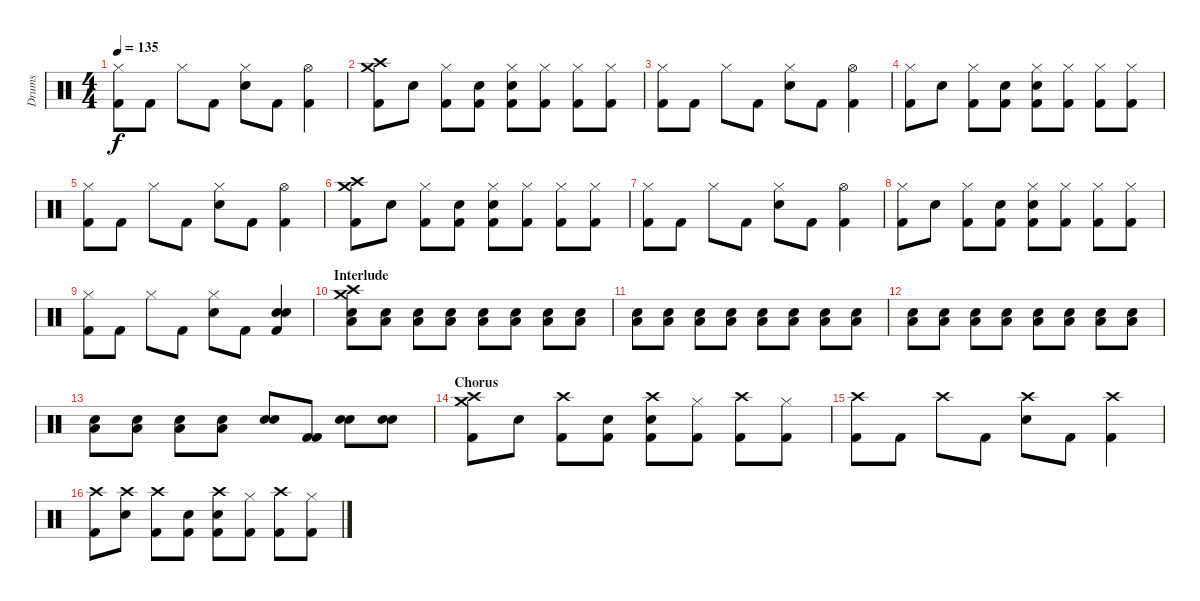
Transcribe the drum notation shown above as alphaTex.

\track ("Drums" "Drums") {instrument percussion}
\staff {score}
\articulation defaults
\ts (4 4)
\tempo 135
\clef neutral
\ks c
("Hi-Hat (closed)" "Kick (hit) 2"{x}).8{dy f} "Kick (hit) 2"{x}.8 "Hi-Hat (closed)".8 "Kick (hit) 2".8 ("Hi-Hat (closed)" "Electric Snare (hit)").8 "Kick (hit) 2".8 ("Hi-Hat (open)" "Kick (hit) 2"{x}).4 |
("Crash medium (hit)" "Crash high (hit)" "Kick (hit) 2").8 "Snare (hit)"{x}.8 ("Hi-Hat (closed)" "Kick (hit) 2"{x}).8 ("Electric Snare (hit)"{x} "Kick (hit) 2").8 ("Hi-Hat (closed)" "Electric Snare (hit)" "Kick (hit) 2"{x}).8 ("Hi-Hat (closed)"{x} "Kick (hit) 2"{x}).8 ("Hi-Hat (closed)" "Kick (hit) 2").8 ("Hi-Hat (closed)"{x} "Kick (hit) 2").8 |
("Hi-Hat (closed)" "Kick (hit) 2"{x}).8 "Kick (hit) 2"{x}.8 "Hi-Hat (closed)".8 "Kick (hit) 2".8 ("Hi-Hat (closed)" "Electric Snare (hit)").8 "Kick (hit) 2".8 ("Hi-Hat (open)" "Kick (hit) 2"{x}).4 |
("Hi-Hat (closed)" "Kick (hit) 2").8 "Snare (hit)"{x}.8 ("Hi-Hat (closed)" "Kick (hit) 2"{x}).8 ("Electric Snare (hit)"{x} "Kick (hit) 2").8 ("Hi-Hat (closed)" "Electric Snare (hit)" "Kick (hit) 2"{x}).8 ("Hi-Hat (closed)"{x} "Kick (hit) 2"{x}).8 ("Hi-Hat (closed)" "Kick (hit) 2").8 ("Hi-Hat (closed)"{x} "Kick (hit) 2").8 |
("Hi-Hat (closed)" "Kick (hit) 2"{x}).8 "Kick (hit) 2"{x}.8 "Hi-Hat (closed)".8 "Kick (hit) 2".8 ("Hi-Hat (closed)" "Electric Snare (hit)").8 "Kick (hit) 2".8 ("Hi-Hat (open)" "Kick (hit) 2"{x}).4 |
("Crash medium (hit)" "Crash high (hit)" "Kick (hit) 2").8 "Snare (hit)"{x}.8 ("Hi-Hat (closed)" "Kick (hit) 2"{x}).8 ("Electric Snare (hit)"{x} "Kick (hit) 2").8 ("Hi-Hat (closed)" "Electric Snare (hit)" "Kick (hit) 2"{x}).8 ("Hi-Hat (closed)"{x} "Kick (hit) 2"{x}).8 ("Hi-Hat (closed)" "Kick (hit) 2").8 ("Hi-Hat (closed)"{x} "Kick (hit) 2").8 |
("Hi-Hat (closed)" "Kick (hit) 2"{x}).8 "Kick (hit) 2"{x}.8 "Hi-Hat (closed)".8 "Kick (hit) 2".8 ("Hi-Hat (closed)" "Electric Snare (hit)").8 "Kick (hit) 2".8 ("Hi-Hat (open)" "Kick (hit) 2"{x}).4 |
("Hi-Hat (closed)" "Kick (hit) 2").8 "Snare (hit)"{x}.8 ("Hi-Hat (closed)" "Kick (hit) 2"{x}).8 ("Electric Snare (hit)"{x} "Kick (hit) 2").8 ("Hi-Hat (closed)" "Electric Snare (hit)" "Kick (hit) 2"{x}).8 ("Hi-Hat (closed)"{x} "Kick (hit) 2"{x}).8 ("Hi-Hat (closed)" "Kick (hit) 2").8 ("Hi-Hat (closed)"{x} "Kick (hit) 2").8 |
("Hi-Hat (closed)" "Kick (hit) 2"{x}).8 "Kick (hit) 2"{x}.8 "Hi-Hat (closed)".8 "Kick (hit) 2".8 ("Hi-Hat (closed)" "Electric Snare (hit)").8 "Kick (hit) 2".8 ("Electric Snare (hit)" "Snare (hit) 2" "Kick (hit) 2"{x}).4 |
\section ("" "Interlude")
("Crash high (hit)" "Crash medium (hit)" "Low Tom (hit)" "Electric Snare (hit)").8{volume 6} ("Low Tom (hit)" "Electric Snare (hit)").8{volume 13} ("Low Tom (hit)" "Electric Snare (hit)").8 ("Low Tom (hit)" "Electric Snare (hit)").8 ("Low Tom (hit)" "Electric Snare (hit)").8 ("Low Tom (hit)" "Electric Snare (hit)").8 ("Low Tom (hit)" "Electric Snare (hit)").8 ("Low Tom (hit)" "Electric Snare (hit)").8 |
("Low Tom (hit)" "Electric Snare (hit)").8 ("Low Tom (hit)" "Electric Snare (hit)").8 ("Low Tom (hit)" "Electric Snare (hit)").8 ("Low Tom (hit)" "Electric Snare (hit)").8 ("Low Tom (hit)" "Electric Snare (hit)").8 ("Low Tom (hit)" "Electric Snare (hit)").8 ("Low Tom (hit)" "Electric Snare (hit)").8 ("Low Tom (hit)" "Electric Snare (hit)").8 |
("Low Tom (hit)" "Electric Snare (hit)").8 ("Low Tom (hit)" "Electric Snare (hit)").8 ("Low Tom (hit)" "Electric Snare (hit)").8 ("Low Tom (hit)" "Electric Snare (hit)").8 ("Low Tom (hit)" "Electric Snare (hit)").8 ("Low Tom (hit)" "Electric Snare (hit)").8 ("Low Tom (hit)" "Electric Snare (hit)").8 ("Low Tom (hit)" "Electric Snare (hit)").8 |
("Low Tom (hit)" "Electric Snare (hit)").8 ("Low Tom (hit)" "Electric Snare (hit)").8 ("Low Tom (hit)" "Electric Snare (hit)").8 ("Low Tom (hit)" "Electric Snare (hit)").8 ("Snare (hit) 2" "Electric Snare (hit)").8 ("Kick (hit) 2" "Kick (hit) 2").8 ("Snare (hit) 2" "Electric Snare (hit)").8 ("Snare (hit) 2"{x} "Electric Snare (hit)"{x}).8 |
\section ("" "Chorus")
("Crash high (hit)" "Crash medium (hit)" "Kick (hit) 2").8 "Snare (hit)"{x}.8 ("Crash high (hit)" "Kick (hit) 2"{x}).8 ("Electric Snare (hit)"{x} "Kick (hit) 2").8 ("Crash high (hit)" "Electric Snare (hit)" "Kick (hit) 2"{x}).8 ("Hi-Hat (closed)"{x} "Kick (hit) 2"{x}).8 ("Crash high (hit)" "Kick (hit) 2").8 ("Hi-Hat (closed)"{x} "Kick (hit) 2").8 |
("Crash high (hit)" "Kick (hit) 2"{x}).8 "Kick (hit) 2"{x}.8 "Crash high (hit)".8 "Kick (hit) 2".8 ("Crash high (hit)" "Electric Snare (hit)").8 "Kick (hit) 2".8 ("Crash high (hit)" "Kick (hit) 2"{x}).4 |
("Crash high (hit)" "Kick (hit) 2").8 ("Crash high (hit)"{x} "Snare (hit)"{x}).8 ("Crash high (hit)" "Kick (hit) 2"{x}).8 ("Electric Snare (hit)"{x} "Kick (hit) 2").8 ("Crash high (hit)" "Electric Snare (hit)" "Kick (hit) 2"{x}).8 ("Hi-Hat (closed)"{x} "Kick (hit) 2"{x}).8 ("Crash high (hit)" "Kick (hit) 2").8 ("Hi-Hat (closed)"{x} "Kick (hit) 2").8
